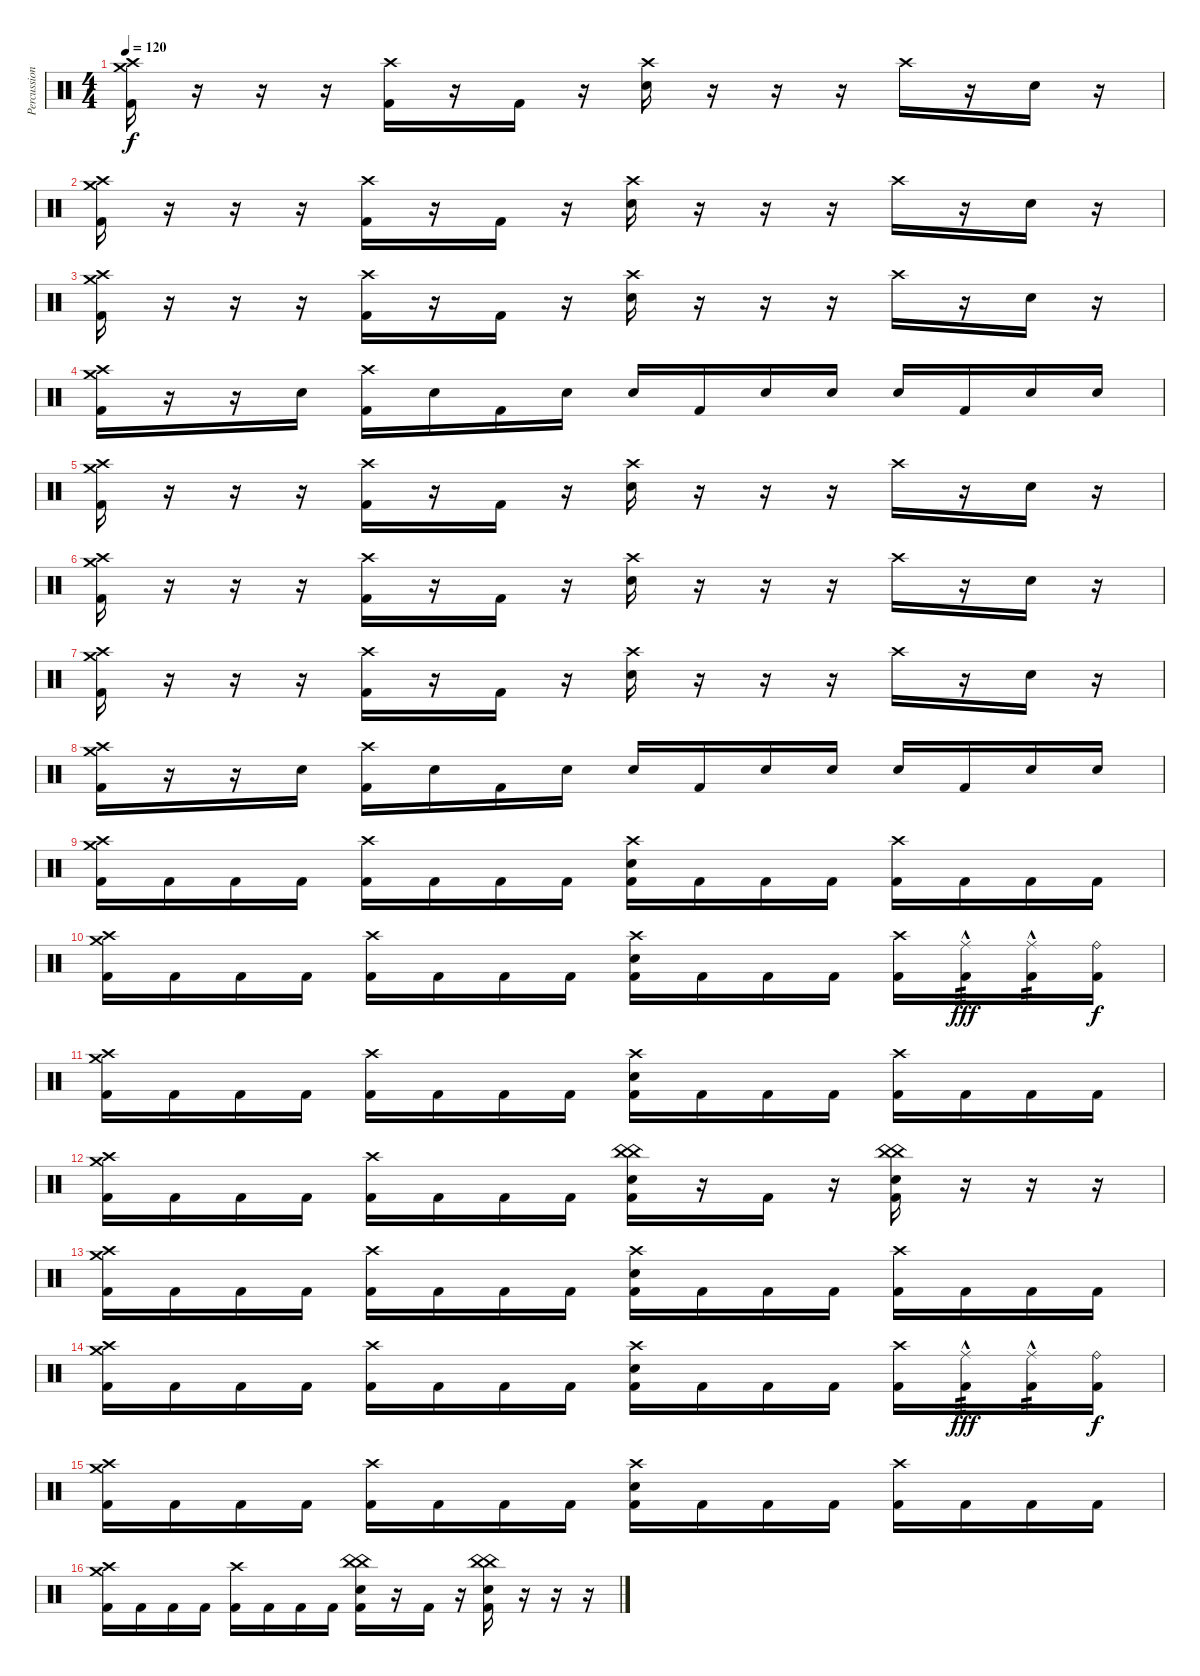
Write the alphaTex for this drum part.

\track ("Percussion" "Percussion") {instrument percussion}
\staff {score}
\articulation defaults
\ts (4 4)
\tempo 120
\clef neutral
\ks c
("Crash medium (hit)" "Crash high (hit)" "Kick (hit) 2").16{dy f} r.16 r.16 r.16 ("Crash high (hit)" "Kick (hit) 2").16 r.16 "Kick (hit) 2".16 r.16 ("Crash high (hit)" "Electric Snare (hit)").16 r.16 r.16 r.16 "Crash high (hit)".16 r.16 "Electric Snare (hit)".16 r.16 |
("Crash medium (hit)" "Crash high (hit)" "Kick (hit) 2").16 r.16 r.16 r.16 ("Crash high (hit)" "Kick (hit) 2").16 r.16 "Kick (hit) 2".16 r.16 ("Crash high (hit)" "Electric Snare (hit)").16 r.16 r.16 r.16 "Crash high (hit)".16 r.16 "Electric Snare (hit)".16 r.16 |
("Crash medium (hit)" "Crash high (hit)" "Kick (hit) 2").16 r.16 r.16 r.16 ("Crash high (hit)" "Kick (hit) 2").16 r.16 "Kick (hit) 2".16 r.16 ("Crash high (hit)" "Electric Snare (hit)").16 r.16 r.16 r.16 "Crash high (hit)".16 r.16 "Electric Snare (hit)".16 r.16 |
("Crash medium (hit)" "Crash high (hit)" "Kick (hit) 2").16 r.16 r.16 "Electric Snare (hit)".16 ("Crash high (hit)" "Kick (hit) 2").16 "Electric Snare (hit)".16 "Kick (hit) 2".16 "Electric Snare (hit)".16 "Electric Snare (hit)".16 "Kick (hit) 2".16 "Electric Snare (hit)".16 "Electric Snare (hit)".16 "Electric Snare (hit)".16 "Kick (hit) 2".16 "Electric Snare (hit)".16 "Electric Snare (hit)".16 |
("Crash medium (hit)" "Crash high (hit)" "Kick (hit) 2").16 r.16 r.16 r.16 ("Crash high (hit)" "Kick (hit) 2").16 r.16 "Kick (hit) 2".16 r.16 ("Crash high (hit)" "Electric Snare (hit)").16 r.16 r.16 r.16 "Crash high (hit)".16 r.16 "Electric Snare (hit)".16 r.16 |
("Crash medium (hit)" "Crash high (hit)" "Kick (hit) 2").16 r.16 r.16 r.16 ("Crash high (hit)" "Kick (hit) 2").16 r.16 "Kick (hit) 2".16 r.16 ("Crash high (hit)" "Electric Snare (hit)").16 r.16 r.16 r.16 "Crash high (hit)".16 r.16 "Electric Snare (hit)".16 r.16 |
("Crash medium (hit)" "Crash high (hit)" "Kick (hit) 2").16 r.16 r.16 r.16 ("Crash high (hit)" "Kick (hit) 2").16 r.16 "Kick (hit) 2".16 r.16 ("Crash high (hit)" "Electric Snare (hit)").16 r.16 r.16 r.16 "Crash high (hit)".16 r.16 "Electric Snare (hit)".16 r.16 |
("Crash medium (hit)" "Crash high (hit)" "Kick (hit) 2").16 r.16 r.16 "Electric Snare (hit)".16 ("Crash high (hit)" "Kick (hit) 2").16 "Electric Snare (hit)".16 "Kick (hit) 2".16 "Electric Snare (hit)".16 "Electric Snare (hit)".16 "Kick (hit) 2".16 "Electric Snare (hit)".16 "Electric Snare (hit)".16 "Electric Snare (hit)".16 "Kick (hit) 2".16 "Electric Snare (hit)".16 "Electric Snare (hit)".16 |
("Crash medium (hit)" "Crash high (hit)" "Kick (hit) 2").16 "Kick (hit) 2".16 "Kick (hit) 2".16 "Kick (hit) 2".16 ("Crash high (hit)" "Kick (hit) 2").16 "Kick (hit) 2".16 "Kick (hit) 2".16 "Kick (hit) 2".16 ("Crash high (hit)" "Electric Snare (hit)" "Kick (hit) 2").16 "Kick (hit) 2".16 "Kick (hit) 2".16 "Kick (hit) 2".16 ("Crash high (hit)" "Kick (hit) 2").16 "Kick (hit) 2".16 "Kick (hit) 2".16 "Kick (hit) 2".16 |
("Crash medium (hit)" "Crash high (hit)" "Kick (hit) 2").16 "Kick (hit) 2".16 "Kick (hit) 2".16 "Kick (hit) 2".16 ("Crash high (hit)" "Kick (hit) 2").16 "Kick (hit) 2".16 "Kick (hit) 2".16 "Kick (hit) 2".16 ("Crash high (hit)" "Electric Snare (hit)" "Kick (hit) 2").16 "Kick (hit) 2".16 "Kick (hit) 2".16 "Kick (hit) 2".16 ("Crash high (hit)" "Kick (hit) 2").16 ("Ride (middle)"{hac} "Kick (hit) 2").16{tp 3 dy fff} ("Ride (middle)"{hac} "Kick (hit) 2").16{tp 2} ("Ride (bell)" "Kick (hit) 2").16{dy f} |
("Crash medium (hit)" "Crash high (hit)" "Kick (hit) 2").16 "Kick (hit) 2".16 "Kick (hit) 2".16 "Kick (hit) 2".16 ("Crash high (hit)" "Kick (hit) 2").16 "Kick (hit) 2".16 "Kick (hit) 2".16 "Kick (hit) 2".16 ("Crash high (hit)" "Electric Snare (hit)" "Kick (hit) 2").16 "Kick (hit) 2".16 "Kick (hit) 2".16 "Kick (hit) 2".16 ("Crash high (hit)" "Kick (hit) 2").16 "Kick (hit) 2".16 "Kick (hit) 2".16 "Kick (hit) 2".16 |
("Crash medium (hit)" "Crash high (hit)" "Kick (hit) 2").16 "Kick (hit) 2".16 "Kick (hit) 2".16 "Kick (hit) 2".16 ("Crash high (hit)" "Kick (hit) 2").16 "Kick (hit) 2".16 "Kick (hit) 2".16 "Kick (hit) 2".16 ("China (hit)" "China (hit)" "Electric Snare (hit)" "Kick (hit) 2").16 r.16 "Kick (hit) 2".16 r.16 ("China (hit)" "China (hit)" "Electric Snare (hit)" "Kick (hit) 2").16 r.16 r.16 r.16 |
("Crash medium (hit)" "Crash high (hit)" "Kick (hit) 2").16 "Kick (hit) 2".16 "Kick (hit) 2".16 "Kick (hit) 2".16 ("Crash high (hit)" "Kick (hit) 2").16 "Kick (hit) 2".16 "Kick (hit) 2".16 "Kick (hit) 2".16 ("Crash high (hit)" "Electric Snare (hit)" "Kick (hit) 2").16 "Kick (hit) 2".16 "Kick (hit) 2".16 "Kick (hit) 2".16 ("Crash high (hit)" "Kick (hit) 2").16 "Kick (hit) 2".16 "Kick (hit) 2".16 "Kick (hit) 2".16 |
("Crash medium (hit)" "Crash high (hit)" "Kick (hit) 2").16 "Kick (hit) 2".16 "Kick (hit) 2".16 "Kick (hit) 2".16 ("Crash high (hit)" "Kick (hit) 2").16 "Kick (hit) 2".16 "Kick (hit) 2".16 "Kick (hit) 2".16 ("Crash high (hit)" "Electric Snare (hit)" "Kick (hit) 2").16 "Kick (hit) 2".16 "Kick (hit) 2".16 "Kick (hit) 2".16 ("Crash high (hit)" "Kick (hit) 2").16 ("Ride (middle)"{hac} "Kick (hit) 2").16{tp 3 dy fff} ("Ride (middle)"{hac} "Kick (hit) 2").16{tp 2} ("Ride (bell)" "Kick (hit) 2").16{dy f} |
("Crash medium (hit)" "Crash high (hit)" "Kick (hit) 2").16 "Kick (hit) 2".16 "Kick (hit) 2".16 "Kick (hit) 2".16 ("Crash high (hit)" "Kick (hit) 2").16 "Kick (hit) 2".16 "Kick (hit) 2".16 "Kick (hit) 2".16 ("Crash high (hit)" "Electric Snare (hit)" "Kick (hit) 2").16 "Kick (hit) 2".16 "Kick (hit) 2".16 "Kick (hit) 2".16 ("Crash high (hit)" "Kick (hit) 2").16 "Kick (hit) 2".16 "Kick (hit) 2".16 "Kick (hit) 2".16 |
("Crash medium (hit)" "Crash high (hit)" "Kick (hit) 2").16 "Kick (hit) 2".16 "Kick (hit) 2".16 "Kick (hit) 2".16 ("Crash high (hit)" "Kick (hit) 2").16 "Kick (hit) 2".16 "Kick (hit) 2".16 "Kick (hit) 2".16 ("China (hit)" "China (hit)" "Electric Snare (hit)" "Kick (hit) 2").16 r.16 "Kick (hit) 2".16 r.16 ("China (hit)" "China (hit)" "Electric Snare (hit)" "Kick (hit) 2").16 r.16 r.16 r.16
